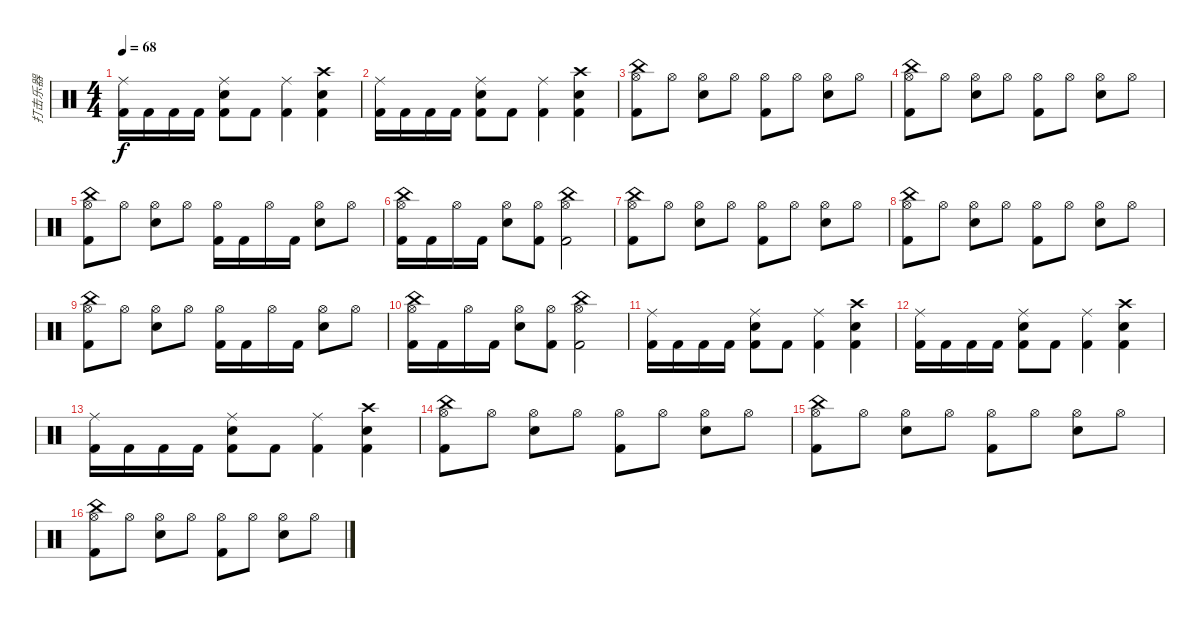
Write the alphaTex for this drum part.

\track ("打击乐器" "打击乐器") {instrument percussion}
\staff {score}
\articulation defaults
\ts (4 4)
\tempo 68
\clef neutral
\ks c
("Ride (middle)" "Kick (hit) 2").16{dy f} "Kick (hit) 2".16 "Kick (hit) 2".16 "Kick (hit) 2".16 ("Ride (middle)" "Snare (hit) 2" "Kick (hit) 2").8 "Kick (hit) 2".8 ("Ride (middle)" "Kick (hit) 2").4 ("Crash high (hit)" "Snare (hit) 2" "Kick (hit) 2").4 |
("Ride (middle)" "Kick (hit) 2").16 "Kick (hit) 2".16 "Kick (hit) 2".16 "Kick (hit) 2".16 ("Ride (middle)" "Snare (hit) 2" "Kick (hit) 2").8 "Kick (hit) 2".8 ("Ride (middle)" "Kick (hit) 2").4 ("Crash high (hit)" "Snare (hit) 2" "Kick (hit) 2").4 |
("Hi-Hat (open)" "China (hit)" "Kick (hit) 2").8 "Hi-Hat (open)".8 ("Hi-Hat (open)" "Snare (hit) 2").8 "Hi-Hat (open)".8 ("Hi-Hat (open)" "Kick (hit) 2").8 "Hi-Hat (open)".8 ("Hi-Hat (open)" "Snare (hit) 2").8 "Hi-Hat (open)".8 |
("Hi-Hat (open)" "China (hit)" "Kick (hit) 2").8 "Hi-Hat (open)".8 ("Hi-Hat (open)" "Snare (hit) 2").8 "Hi-Hat (open)".8 ("Hi-Hat (open)" "Kick (hit) 2").8 "Hi-Hat (open)".8 ("Hi-Hat (open)" "Snare (hit) 2").8 "Hi-Hat (open)".8 |
("Hi-Hat (open)" "China (hit)" "Kick (hit) 2").8 "Hi-Hat (open)".8 ("Hi-Hat (open)" "Snare (hit) 2").8 "Hi-Hat (open)".8 ("Hi-Hat (open)" "Kick (hit) 2").16 "Kick (hit) 2".16 "Hi-Hat (open)".16 "Kick (hit) 2".16 ("Hi-Hat (open)" "Snare (hit) 2").8 "Hi-Hat (open)".8 |
("Hi-Hat (open)" "China (hit)" "Kick (hit) 2").16 "Kick (hit) 2".16 "Hi-Hat (open)".16 "Kick (hit) 2".16 ("Hi-Hat (open)" "Snare (hit) 2").8 ("Hi-Hat (open)" "Kick (hit) 2").8 ("Hi-Hat (open)" "China (hit)" "Kick (hit) 2").2 |
("Hi-Hat (open)" "China (hit)" "Kick (hit) 2").8 "Hi-Hat (open)".8 ("Hi-Hat (open)" "Snare (hit) 2").8 "Hi-Hat (open)".8 ("Hi-Hat (open)" "Kick (hit) 2").8 "Hi-Hat (open)".8 ("Hi-Hat (open)" "Snare (hit) 2").8 "Hi-Hat (open)".8 |
("Hi-Hat (open)" "China (hit)" "Kick (hit) 2").8 "Hi-Hat (open)".8 ("Hi-Hat (open)" "Snare (hit) 2").8 "Hi-Hat (open)".8 ("Hi-Hat (open)" "Kick (hit) 2").8 "Hi-Hat (open)".8 ("Hi-Hat (open)" "Snare (hit) 2").8 "Hi-Hat (open)".8 |
("Hi-Hat (open)" "China (hit)" "Kick (hit) 2").8 "Hi-Hat (open)".8 ("Hi-Hat (open)" "Snare (hit) 2").8 "Hi-Hat (open)".8 ("Hi-Hat (open)" "Kick (hit) 2").16 "Kick (hit) 2".16 "Hi-Hat (open)".16 "Kick (hit) 2".16 ("Hi-Hat (open)" "Snare (hit) 2").8 "Hi-Hat (open)".8 |
("Hi-Hat (open)" "China (hit)" "Kick (hit) 2").16 "Kick (hit) 2".16 "Hi-Hat (open)".16 "Kick (hit) 2".16 ("Hi-Hat (open)" "Snare (hit) 2").8 ("Hi-Hat (open)" "Kick (hit) 2").8 ("Hi-Hat (open)" "China (hit)" "Kick (hit) 2").2 |
("Ride (middle)" "Kick (hit) 2").16 "Kick (hit) 2".16 "Kick (hit) 2".16 "Kick (hit) 2".16 ("Ride (middle)" "Snare (hit) 2" "Kick (hit) 2").8 "Kick (hit) 2".8 ("Ride (middle)" "Kick (hit) 2").4 ("Crash high (hit)" "Snare (hit) 2" "Kick (hit) 2").4 |
("Ride (middle)" "Kick (hit) 2").16 "Kick (hit) 2".16 "Kick (hit) 2".16 "Kick (hit) 2".16 ("Ride (middle)" "Snare (hit) 2" "Kick (hit) 2").8 "Kick (hit) 2".8 ("Ride (middle)" "Kick (hit) 2").4 ("Crash high (hit)" "Snare (hit) 2" "Kick (hit) 2").4 |
("Ride (middle)" "Kick (hit) 2").16 "Kick (hit) 2".16 "Kick (hit) 2".16 "Kick (hit) 2".16 ("Ride (middle)" "Snare (hit) 2" "Kick (hit) 2").8 "Kick (hit) 2".8 ("Ride (middle)" "Kick (hit) 2").4 ("Crash high (hit)" "Snare (hit) 2" "Kick (hit) 2").4 |
("Hi-Hat (open)" "China (hit)" "Kick (hit) 2").8 "Hi-Hat (open)".8 ("Hi-Hat (open)" "Snare (hit) 2").8 "Hi-Hat (open)".8 ("Hi-Hat (open)" "Kick (hit) 2").8 "Hi-Hat (open)".8 ("Hi-Hat (open)" "Snare (hit) 2").8 "Hi-Hat (open)".8 |
("Hi-Hat (open)" "China (hit)" "Kick (hit) 2").8 "Hi-Hat (open)".8 ("Hi-Hat (open)" "Snare (hit) 2").8 "Hi-Hat (open)".8 ("Hi-Hat (open)" "Kick (hit) 2").8 "Hi-Hat (open)".8 ("Hi-Hat (open)" "Snare (hit) 2").8 "Hi-Hat (open)".8 |
("Hi-Hat (open)" "China (hit)" "Kick (hit) 2").8 "Hi-Hat (open)".8 ("Hi-Hat (open)" "Snare (hit) 2").8 "Hi-Hat (open)".8 ("Hi-Hat (open)" "Kick (hit) 2").8 "Hi-Hat (open)".8 ("Hi-Hat (open)" "Snare (hit) 2").8 "Hi-Hat (open)".8
